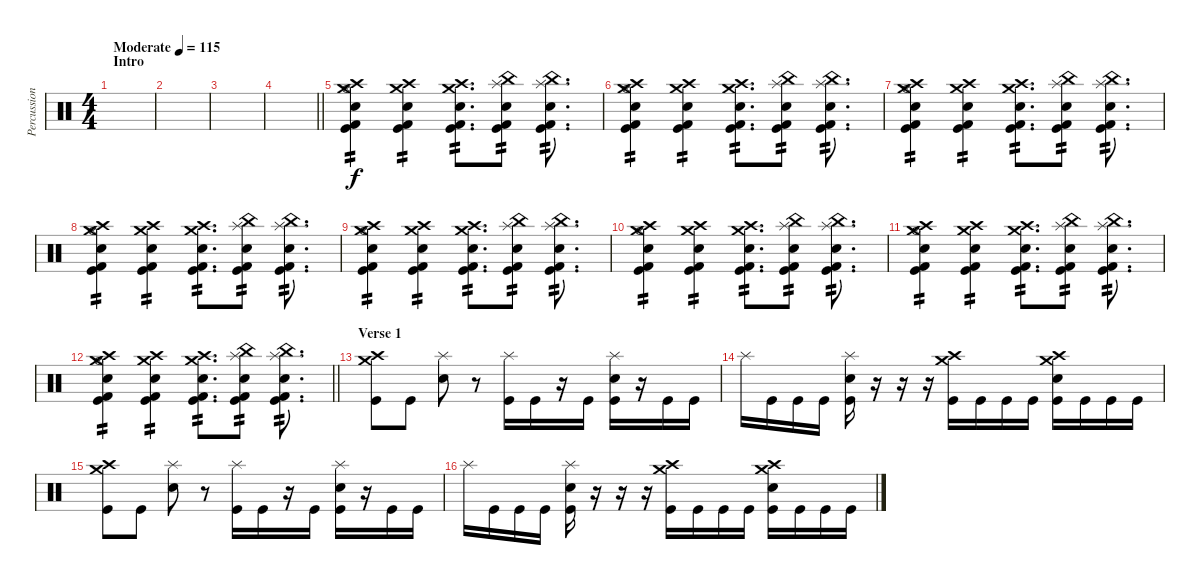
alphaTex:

\track ("Percussion (Approx.)" "Percussion") {instrument percussion}
\staff {score}
\articulation defaults
\ts (4 4)
\section ("" "Intro")
\tempo (115 "Moderate")
\clef neutral
\ks c
|
|
|
\barLineRight lightlight
|
\section ("" "")
("Hi-Hat (open)" "Crash medium (hit)" "Crash high (hit)" "Kick (hit) 2" "Kick (hit)" "Electric Snare (hit)").4{tp 2} ("Crash medium (hit)" "Crash high (hit)" "Kick (hit) 2" "Kick (hit)" "Electric Snare (hit)").4{tp 2} ("Crash medium (hit)" "Crash high (hit)" "Kick (hit) 2" "Kick (hit)" "Electric Snare (hit)").8{d tp 2} ("China (hit)" "Splash (hit)" "Kick (hit) 2" "Kick (hit)" "Electric Snare (hit)").8{tp 2} ("China (hit)" "Splash (hit)" "Kick (hit) 2" "Kick (hit)" "Electric Snare (hit)").8{d tp 2} |
("Hi-Hat (open)" "Crash medium (hit)" "Crash high (hit)" "Kick (hit) 2" "Kick (hit)" "Electric Snare (hit)").4{tp 2} ("Crash medium (hit)" "Crash high (hit)" "Kick (hit) 2" "Kick (hit)" "Electric Snare (hit)").4{tp 2} ("Crash medium (hit)" "Crash high (hit)" "Kick (hit) 2" "Kick (hit)" "Electric Snare (hit)").8{d tp 2} ("China (hit)" "Splash (hit)" "Kick (hit) 2" "Kick (hit)" "Electric Snare (hit)").8{tp 2} ("China (hit)" "Splash (hit)" "Kick (hit) 2" "Kick (hit)" "Electric Snare (hit)").8{d tp 2} |
("Hi-Hat (open)" "Crash medium (hit)" "Crash high (hit)" "Kick (hit) 2" "Kick (hit)" "Electric Snare (hit)").4{tp 2} ("Crash medium (hit)" "Crash high (hit)" "Kick (hit) 2" "Kick (hit)" "Electric Snare (hit)").4{tp 2} ("Crash medium (hit)" "Crash high (hit)" "Kick (hit) 2" "Kick (hit)" "Electric Snare (hit)").8{d tp 2} ("China (hit)" "Splash (hit)" "Kick (hit) 2" "Kick (hit)" "Electric Snare (hit)").8{tp 2} ("China (hit)" "Splash (hit)" "Kick (hit) 2" "Kick (hit)" "Electric Snare (hit)").8{d tp 2} |
("Hi-Hat (open)" "Crash medium (hit)" "Crash high (hit)" "Kick (hit) 2" "Kick (hit)" "Electric Snare (hit)").4{tp 2} ("Crash medium (hit)" "Crash high (hit)" "Kick (hit) 2" "Kick (hit)" "Electric Snare (hit)").4{tp 2} ("Crash medium (hit)" "Crash high (hit)" "Kick (hit) 2" "Kick (hit)" "Electric Snare (hit)").8{d tp 2} ("China (hit)" "Splash (hit)" "Kick (hit) 2" "Kick (hit)" "Electric Snare (hit)").8{tp 2} ("China (hit)" "Splash (hit)" "Kick (hit) 2" "Kick (hit)" "Electric Snare (hit)").8{d tp 2} |
("Hi-Hat (open)" "Crash medium (hit)" "Crash high (hit)" "Kick (hit) 2" "Kick (hit)" "Electric Snare (hit)").4{tp 2} ("Crash medium (hit)" "Crash high (hit)" "Kick (hit) 2" "Kick (hit)" "Electric Snare (hit)").4{tp 2} ("Crash medium (hit)" "Crash high (hit)" "Kick (hit) 2" "Kick (hit)" "Electric Snare (hit)").8{d tp 2} ("China (hit)" "Splash (hit)" "Kick (hit) 2" "Kick (hit)" "Electric Snare (hit)").8{tp 2} ("China (hit)" "Splash (hit)" "Kick (hit) 2" "Kick (hit)" "Electric Snare (hit)").8{d tp 2} |
("Hi-Hat (open)" "Crash medium (hit)" "Crash high (hit)" "Kick (hit) 2" "Kick (hit)" "Electric Snare (hit)").4{tp 2} ("Crash medium (hit)" "Crash high (hit)" "Kick (hit) 2" "Kick (hit)" "Electric Snare (hit)").4{tp 2} ("Crash medium (hit)" "Crash high (hit)" "Kick (hit) 2" "Kick (hit)" "Electric Snare (hit)").8{d tp 2} ("China (hit)" "Splash (hit)" "Kick (hit) 2" "Kick (hit)" "Electric Snare (hit)").8{tp 2} ("China (hit)" "Splash (hit)" "Kick (hit) 2" "Kick (hit)" "Electric Snare (hit)").8{d tp 2} |
("Hi-Hat (open)" "Crash medium (hit)" "Crash high (hit)" "Kick (hit) 2" "Kick (hit)" "Electric Snare (hit)").4{tp 2} ("Crash medium (hit)" "Crash high (hit)" "Kick (hit) 2" "Kick (hit)" "Electric Snare (hit)").4{tp 2} ("Crash medium (hit)" "Crash high (hit)" "Kick (hit) 2" "Kick (hit)" "Electric Snare (hit)").8{d tp 2} ("China (hit)" "Splash (hit)" "Kick (hit) 2" "Kick (hit)" "Electric Snare (hit)").8{tp 2} ("China (hit)" "Splash (hit)" "Kick (hit) 2" "Kick (hit)" "Electric Snare (hit)").8{d tp 2} |
\barLineRight lightlight
("Hi-Hat (open)" "Crash medium (hit)" "Crash high (hit)" "Kick (hit) 2" "Kick (hit)" "Electric Snare (hit)").4{tp 2} ("Crash medium (hit)" "Crash high (hit)" "Kick (hit) 2" "Kick (hit)" "Electric Snare (hit)").4{tp 2} ("Crash medium (hit)" "Crash high (hit)" "Kick (hit) 2" "Kick (hit)" "Electric Snare (hit)").8{d tp 2} ("China (hit)" "Splash (hit)" "Kick (hit) 2" "Kick (hit)" "Electric Snare (hit)").8{tp 2} ("China (hit)" "Splash (hit)" "Kick (hit) 2" "Kick (hit)" "Electric Snare (hit)").8{d tp 2} |
\section ("" "Verse 1")
("Crash medium (hit)" "Crash high (hit)" "Kick (hit)").8 "Kick (hit)".8 ("Splash (hit)" "Electric Snare (hit)").8 r.8 ("Splash (hit)" "Kick (hit)").16 "Kick (hit)".16 r.16 "Kick (hit)".16 ("Splash (hit)" "Electric Snare (hit)" "Kick (hit)").16 r.16 "Kick (hit)".16 "Kick (hit)".16 |
"Splash (hit)".16 "Kick (hit)".16 "Kick (hit)".16 "Kick (hit)".16 ("Splash (hit)" "Electric Snare (hit)" "Kick (hit)").16 r.16 r.16 r.16 ("Crash medium (hit)" "Crash high (hit)" "Kick (hit)").16 "Kick (hit)".16 "Kick (hit)".16 "Kick (hit)".16 ("Crash medium (hit)" "Crash high (hit)" "Electric Snare (hit)" "Kick (hit)").16 "Kick (hit)".16 "Kick (hit)".16 "Kick (hit)".16 |
("Crash medium (hit)" "Crash high (hit)" "Kick (hit)").8 "Kick (hit)".8 ("Splash (hit)" "Electric Snare (hit)").8 r.8 ("Splash (hit)" "Kick (hit)").16 "Kick (hit)".16 r.16 "Kick (hit)".16 ("Splash (hit)" "Electric Snare (hit)" "Kick (hit)").16 r.16 "Kick (hit)".16 "Kick (hit)".16 |
"Splash (hit)".16 "Kick (hit)".16 "Kick (hit)".16 "Kick (hit)".16 ("Splash (hit)" "Electric Snare (hit)" "Kick (hit)").16 r.16 r.16 r.16 ("Crash medium (hit)" "Crash high (hit)" "Kick (hit)").16 "Kick (hit)".16 "Kick (hit)".16 "Kick (hit)".16 ("Crash medium (hit)" "Crash high (hit)" "Electric Snare (hit)" "Kick (hit)").16 "Kick (hit)".16 "Kick (hit)".16 "Kick (hit)".16
